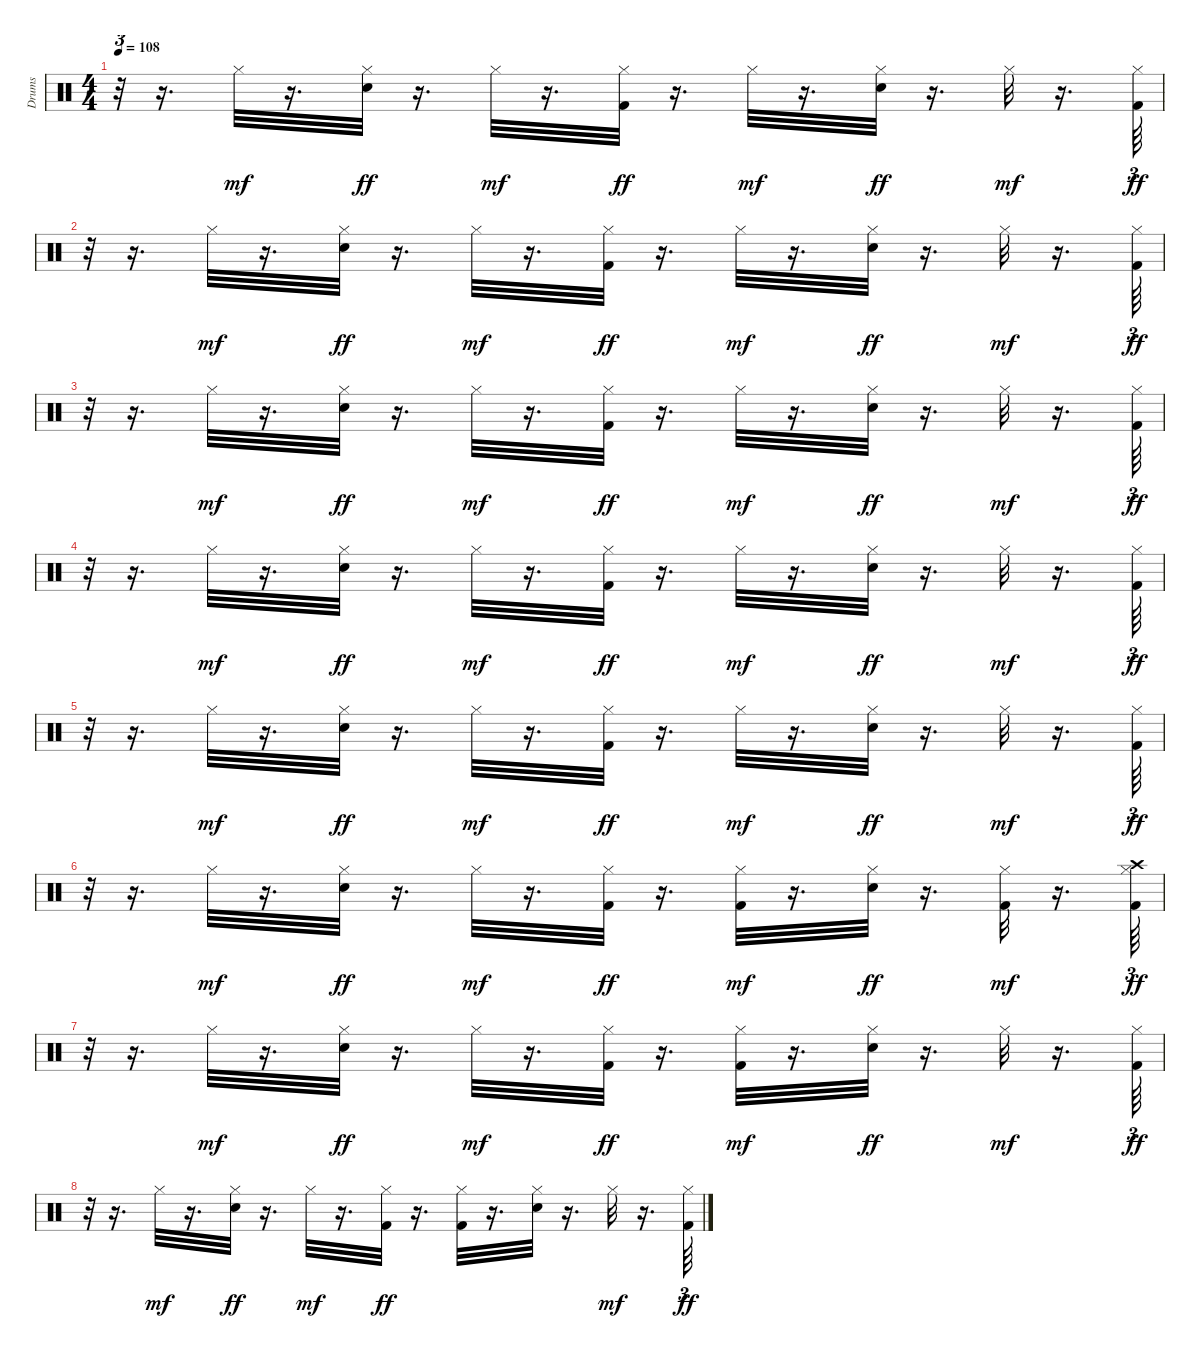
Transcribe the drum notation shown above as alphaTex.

\track ("Drums               " "Drums     ") {instrument percussion}
\staff {score}
\articulation defaults
\ts (4 4)
\tempo 108
\clef neutral
\ks c
r.32{tu (3 2) dy ff} r.16{d} "Hi-Hat (closed)".32{dy mf} r.16{d} ("Snare (hit) 2" "Hi-Hat (closed)").32{dy ff} r.16{d} "Hi-Hat (closed)".32{dy mf} r.16{d} ("Kick (hit) 2" "Hi-Hat (closed)").32{dy ff} r.16{d} "Hi-Hat (closed)".32{dy mf} r.16{d} ("Hi-Hat (closed)" "Snare (hit) 2").32{dy ff} r.16{d} "Hi-Hat (closed)".32{dy mf} r.16{d} ("Kick (hit) 2" "Hi-Hat (closed)").64{tu (3 2) dy ff} |
r.32{tu (3 2)} r.16{d} "Hi-Hat (closed)".32{dy mf} r.16{d} ("Snare (hit) 2" "Hi-Hat (closed)").32{dy ff} r.16{d} "Hi-Hat (closed)".32{dy mf} r.16{d} ("Kick (hit) 2" "Hi-Hat (closed)").32{dy ff} r.16{d} "Hi-Hat (closed)".32{dy mf} r.16{d} ("Snare (hit) 2" "Hi-Hat (closed)").32{dy ff} r.16{d} "Hi-Hat (closed)".32{dy mf} r.16{d} ("Kick (hit) 2" "Hi-Hat (closed)").64{tu (3 2) dy ff} |
r.32{tu (3 2)} r.16{d} "Hi-Hat (closed)".32{dy mf} r.16{d} ("Snare (hit) 2" "Hi-Hat (closed)").32{dy ff} r.16{d} "Hi-Hat (closed)".32{dy mf} r.16{d} ("Kick (hit) 2" "Hi-Hat (closed)").32{dy ff} r.16{d} "Hi-Hat (closed)".32{dy mf} r.16{d} ("Snare (hit) 2" "Hi-Hat (closed)").32{dy ff} r.16{d} "Hi-Hat (closed)".32{dy mf} r.16{d} ("Kick (hit) 2" "Hi-Hat (closed)").64{tu (3 2) dy ff} |
r.32{tu (3 2)} r.16{d} "Hi-Hat (closed)".32{dy mf} r.16{d} ("Snare (hit) 2" "Hi-Hat (closed)").32{dy ff} r.16{d} "Hi-Hat (closed)".32{dy mf} r.16{d} ("Hi-Hat (closed)" "Kick (hit) 2").32{dy ff} r.16{d} "Hi-Hat (closed)".32{dy mf} r.16{d} ("Snare (hit) 2" "Hi-Hat (closed)").32{dy ff} r.16{d} "Hi-Hat (closed)".32{dy mf} r.16{d} ("Kick (hit) 2" "Hi-Hat (closed)").64{tu (3 2) dy ff} |
r.32{tu (3 2)} r.16{d} "Hi-Hat (closed)".32{dy mf} r.16{d} ("Snare (hit) 2" "Hi-Hat (closed)").32{dy ff} r.16{d} "Hi-Hat (closed)".32{dy mf} r.16{d} ("Kick (hit) 2" "Hi-Hat (closed)").32{dy ff} r.16{d} "Hi-Hat (closed)".32{dy mf} r.16{d} ("Snare (hit) 2" "Hi-Hat (closed)").32{dy ff} r.16{d} "Hi-Hat (closed)".32{dy mf} r.16{d} ("Kick (hit) 2" "Hi-Hat (closed)").64{tu (3 2) dy ff} |
r.32{tu (3 2)} r.16{d} "Hi-Hat (closed)".32{dy mf} r.16{d} ("Snare (hit) 2" "Hi-Hat (closed)").32{dy ff} r.16{d} "Hi-Hat (closed)".32{dy mf} r.16{d} ("Kick (hit) 2" "Hi-Hat (closed)").32{dy ff} r.16{d} ("Kick (hit) 2" "Hi-Hat (closed)").32{dy mf} r.16{d} ("Snare (hit) 2" "Hi-Hat (closed)").32{dy ff} r.16{d} ("Kick (hit) 2" "Hi-Hat (closed)").32{dy mf} r.16{d} ("Kick (hit) 2" "Crash high (hit)" "Hi-Hat (closed)").64{tu (3 2) dy ff} |
r.32{tu (3 2)} r.16{d} "Hi-Hat (closed)".32{dy mf} r.16{d} ("Hi-Hat (closed)" "Snare (hit) 2").32{dy ff} r.16{d} "Hi-Hat (closed)".32{dy mf} r.16{d} ("Kick (hit) 2" "Hi-Hat (closed)").32{dy ff} r.16{d} ("Kick (hit) 2" "Hi-Hat (closed)").32{dy mf} r.16{d} ("Snare (hit) 2" "Hi-Hat (closed)").32{dy ff} r.16{d} "Hi-Hat (closed)".32{dy mf} r.16{d} ("Kick (hit) 2" "Hi-Hat (closed)").64{tu (3 2) dy ff} |
r.32{tu (3 2)} r.16{d} "Hi-Hat (closed)".32{dy mf} r.16{d} ("Snare (hit) 2" "Hi-Hat (closed)").32{dy ff} r.16{d} "Hi-Hat (closed)".32{dy mf} r.16{d} ("Kick (hit) 2" "Hi-Hat (closed)").32{dy ff} r.16{d} ("Hi-Hat (closed)" "Kick (hit) 2").32 r.16{d} ("Snare (hit) 2" "Hi-Hat (closed)").32 r.16{d} "Hi-Hat (closed)".32{dy mf} r.16{d} ("Kick (hit) 2" "Hi-Hat (closed)").64{tu (3 2) dy ff}
